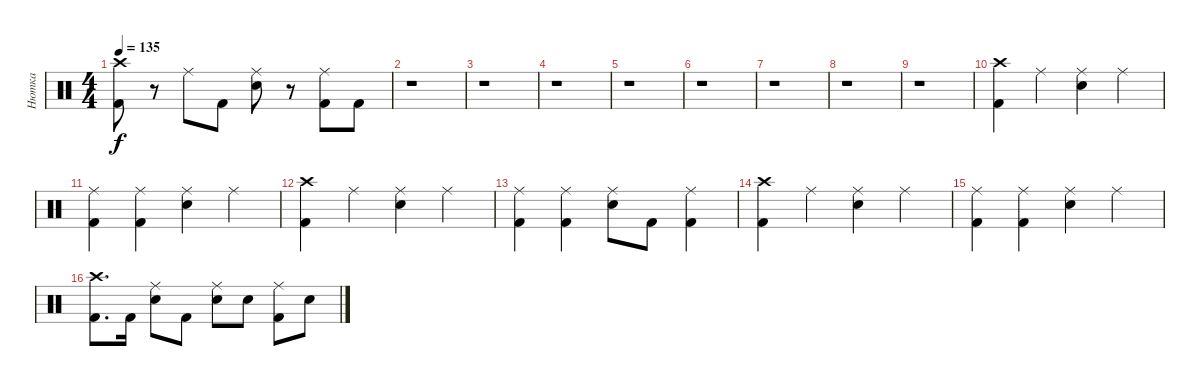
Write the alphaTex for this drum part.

\track ("Нютка" "Нютка") {instrument percussion}
\staff {score}
\articulation defaults
\ts (4 4)
\tempo 135
\clef neutral
\ks c
("Crash high (hit)" "Kick (hit) 2").8{dy f} r.8 "Ride (middle)".8 "Kick (hit) 2".8 ("Ride (middle)" "Snare (hit) 2").8 r.8 ("Ride (middle)" "Kick (hit) 2").8 "Kick (hit) 2".8 |
r.1 |
r.1 |
r.1 |
r.1 |
r.1 |
r.1 |
r.1 |
r.1 |
("Crash high (hit)" "Kick (hit) 2").4 "Ride (middle)".4 ("Ride (middle)" "Snare (hit) 2").4 "Ride (middle)".4 |
("Ride (middle)" "Kick (hit) 2").4 ("Ride (middle)" "Kick (hit) 2").4 ("Ride (middle)" "Snare (hit) 2").4 "Ride (middle)".4 |
("Crash high (hit)" "Kick (hit) 2").4 "Ride (middle)".4 ("Ride (middle)" "Snare (hit) 2").4 "Ride (middle)".4 |
("Ride (middle)" "Kick (hit) 2").4 ("Ride (middle)" "Kick (hit) 2").4 ("Ride (middle)" "Snare (hit) 2").8 "Kick (hit) 2".8 ("Ride (middle)" "Kick (hit) 2").4 |
("Crash high (hit)" "Kick (hit) 2").4 "Ride (middle)".4 ("Ride (middle)" "Snare (hit) 2").4 "Ride (middle)".4 |
("Ride (middle)" "Kick (hit) 2").4 ("Ride (middle)" "Kick (hit) 2").4 ("Ride (middle)" "Snare (hit) 2").4 "Ride (middle)".4 |
("Crash high (hit)" "Kick (hit) 2").8{d} "Kick (hit) 2".16 ("Ride (middle)" "Snare (hit) 2").8 "Kick (hit) 2".8 ("Ride (middle)" "Snare (hit) 2").8 "Snare (hit) 2".8 ("Ride (middle)" "Kick (hit) 2").8 "Snare (hit) 2".8
